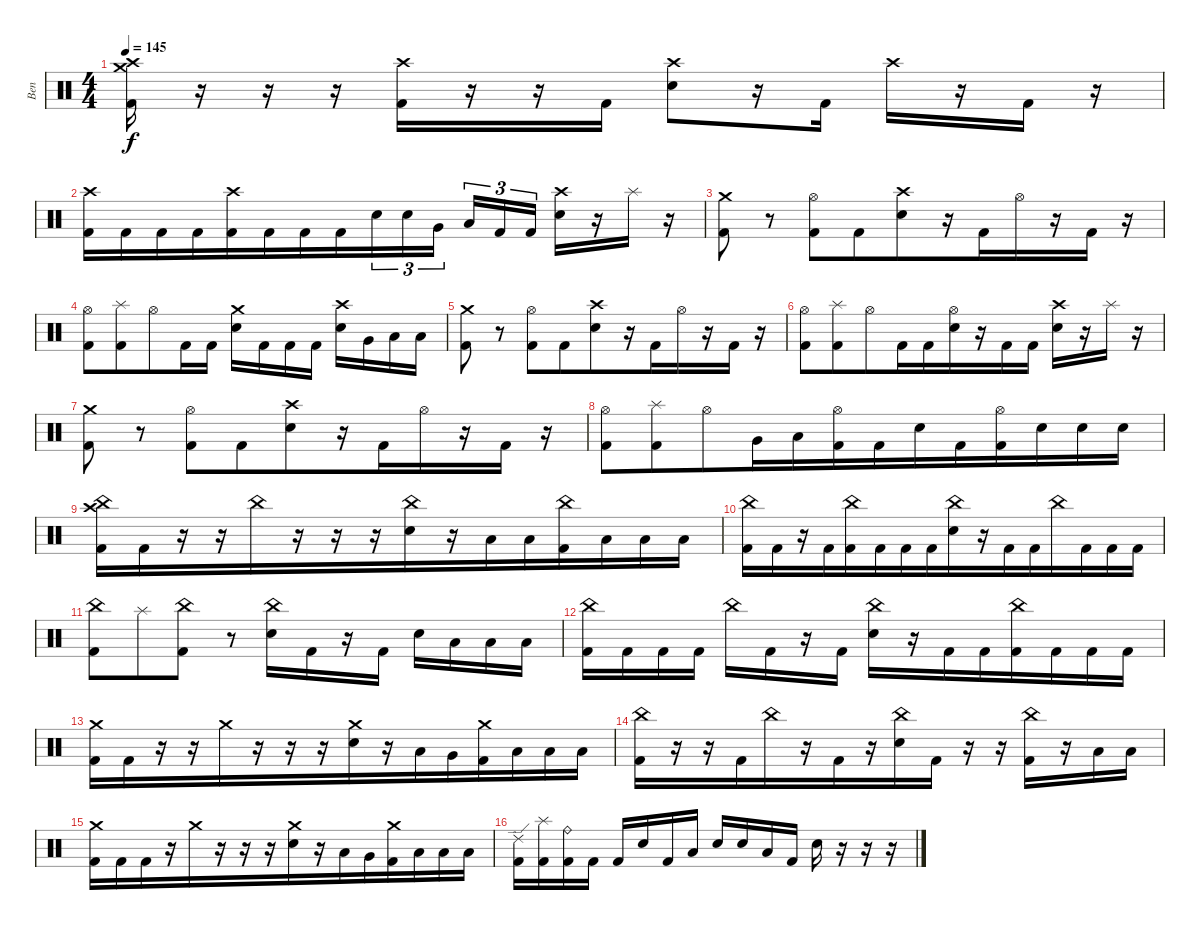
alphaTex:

\track ("Ben" "Ben") {instrument percussion}
\staff {score}
\articulation defaults
\ts (4 4)
\tempo 145
\clef neutral
\ks c
("Kick (hit) 2" "Crash medium (hit)" "Crash high (hit)").16{dy f} r.16{beam merge} r.16{beam merge} r.16{beam merge} ("Kick (hit) 2" "Crash high (hit)").16{beam merge} r.16 r.16{beam merge} "Kick (hit) 2".16 ("Electric Snare (hit)" "Crash high (hit)").8{beam merge} r.16 "Kick (hit) 2".16 "Crash high (hit)".16 r.16{beam merge} "Kick (hit) 2".16 r.16 |
("Kick (hit) 2" "Crash high (hit)").16 "Kick (hit) 2".16{beam merge} "Kick (hit) 2".16{beam merge} "Kick (hit) 2".16{beam merge} ("Kick (hit) 2" "Crash high (hit)").16{beam merge} "Kick (hit) 2".16 "Kick (hit) 2".16{beam merge} "Kick (hit) 2".16{beam merge} "Electric Snare (hit)".16{tu (3 2)} "Electric Snare (hit)".16{tu (3 2) beam merge} "Very Low Tom (hit)".16{tu (3 2) beam splitsecondary} "Low Floor Tom (hit)".16{tu (3 2)} "Kick (hit) 2".16{tu (3 2)} "Kick (hit) 2".16{tu (3 2)} ("Crash high (hit)" "Electric Snare (hit)").16 r.16 "Splash (hit)".16{beam merge} r.16 |
("Crash medium (hit)" "Kick (hit) 2").8 r.8 ("Hi-Hat (open)" "Kick (hit) 2").8{beam merge} "Kick (hit) 2".8{beam merge} ("Crash high (hit)" "Electric Snare (hit)").8 r.16{beam merge} "Kick (hit) 2".16{beam merge} "Hi-Hat (open)".16 r.16 "Kick (hit) 2".16 r.16 |
("Kick (hit) 2" "Hi-Hat (open)").8{beam merge} ("Kick (hit) 2" "Splash (hit)").8{beam merge} "Hi-Hat (open)".8{beam merge} "Kick (hit) 2".16{beam merge} "Kick (hit) 2".16 ("Electric Snare (hit)" "Crash medium (hit)").16 "Kick (hit) 2".16{beam merge} "Kick (hit) 2".16 "Kick (hit) 2".16 ("Electric Snare (hit)" "Crash high (hit)").16{beam merge} "Very Low Tom (hit)".16 "Low Floor Tom (hit)".16{beam merge} "Low Floor Tom (hit)".16 |
("Crash medium (hit)" "Kick (hit) 2").8 r.8 ("Hi-Hat (open)" "Kick (hit) 2").8{beam merge} "Kick (hit) 2".8{beam merge} ("Crash high (hit)" "Electric Snare (hit)").8 r.16{beam merge} "Kick (hit) 2".16{beam merge} "Hi-Hat (open)".16 r.16 "Kick (hit) 2".16 r.16 |
("Kick (hit) 2" "Hi-Hat (open)").8{beam merge} ("Kick (hit) 2" "Splash (hit)").8{beam merge} "Hi-Hat (open)".8{beam merge} "Kick (hit) 2".16{beam merge} "Kick (hit) 2".16{beam merge} ("Hi-Hat (open)" "Electric Snare (hit)").16 r.16 "Kick (hit) 2".16 "Kick (hit) 2".16 ("Crash high (hit)" "Electric Snare (hit)").16 r.16 "Splash (hit)".16{beam merge} r.16 |
("Crash medium (hit)" "Kick (hit) 2").8 r.8 ("Hi-Hat (open)" "Kick (hit) 2").8{beam merge} "Kick (hit) 2".8{beam merge} ("Crash high (hit)" "Electric Snare (hit)").8 r.16{beam merge} "Kick (hit) 2".16{beam merge} "Hi-Hat (open)".16 r.16 "Kick (hit) 2".16 r.16 |
("Kick (hit) 2" "Hi-Hat (open)").8{beam merge} ("Kick (hit) 2" "Splash (hit)").8{beam merge} "Hi-Hat (open)".8{beam merge} "Very Low Tom (hit)".16{beam merge} "Low Floor Tom (hit)".16{beam merge} ("Kick (hit) 2" "Hi-Hat (open)").16 "Kick (hit) 2".16 "Electric Snare (hit)".16{beam merge} "Kick (hit) 2".16{beam merge} ("Kick (hit) 2" "Hi-Hat (open)").16{beam merge} "Electric Snare (hit)".16 "Electric Snare (hit)".16{beam merge} "Electric Snare (hit)".16 |
("Kick (hit) 2" "Crash high (hit)" "China (hit)").16 "Kick (hit) 2".16{beam merge} r.16{beam merge} r.16 "China (hit)".16{beam merge} r.16 r.16 r.16{beam merge} ("Electric Snare (hit)" "China (hit)").16{beam merge} r.16{beam merge} "Low Tom (hit)".16{beam merge} "Low Tom (hit)".16{beam merge} ("Kick (hit) 2" "China (hit)").16{beam merge} "Low Floor Tom (hit)".16 "Low Floor Tom (hit)".16 "Low Floor Tom (hit)".16 |
("China (hit)" "Kick (hit) 2").16{beam merge} "Kick (hit) 2".16 r.16 "Kick (hit) 2".16{beam merge} ("China (hit)" "Kick (hit) 2").16{beam merge} "Kick (hit) 2".16 "Kick (hit) 2".16 "Kick (hit) 2".16{beam merge} ("China (hit)" "Electric Snare (hit)").16 r.16{beam merge} "Kick (hit) 2".16{beam merge} "Kick (hit) 2".16{beam merge} "China (hit)".16 "Kick (hit) 2".16 "Kick (hit) 2".16{beam merge} "Kick (hit) 2".16 |
("Kick (hit) 2" "China (hit)").8 "Splash (hit)".8{beam merge} ("Kick (hit) 2" "China (hit)").8 r.8 ("Electric Snare (hit)" "China (hit)").16{beam merge} "Kick (hit) 2".16 r.16{beam merge} "Kick (hit) 2".16 "Electric Snare (hit)".16 "Low Tom (hit)".16{beam merge} "Low Tom (hit)".16 "Low Tom (hit)".16 |
("Kick (hit) 2" "China (hit)").16{beam merge} "Kick (hit) 2".16 "Kick (hit) 2".16 "Kick (hit) 2".16 "China (hit)".16 "Kick (hit) 2".16 r.16 "Kick (hit) 2".16 ("Electric Snare (hit)" "China (hit)").16{beam merge} r.16 "Kick (hit) 2".16{beam merge} "Kick (hit) 2".16{beam merge} ("Kick (hit) 2" "China (hit)").16 "Kick (hit) 2".16{beam merge} "Kick (hit) 2".16 "Kick (hit) 2".16 |
("Kick (hit) 2" "Crash medium (hit)").16 "Kick (hit) 2".16{beam merge} r.16{beam merge} r.16 "Crash medium (hit)".16{beam merge} r.16 r.16 r.16{beam merge} ("Electric Snare (hit)" "Crash medium (hit)").16{beam merge} r.16{beam merge} "Low Tom (hit)".16{beam merge} "Very Low Tom (hit)".16{beam merge} ("Kick (hit) 2" "Crash medium (hit)").16{beam merge} "Low Floor Tom (hit)".16 "Low Floor Tom (hit)".16 "Low Floor Tom (hit)".16 |
("China (hit)" "Kick (hit) 2").16 r.16{beam merge} r.16{beam merge} "Kick (hit) 2".16{beam merge} "China (hit)".16{beam merge} r.16 "Kick (hit) 2".16{beam merge} r.16 ("China (hit)" "Electric Snare (hit)").16 "Kick (hit) 2".16 r.16{beam merge} r.16{beam merge} ("China (hit)" "Kick (hit) 2").16{beam merge} r.16 "Low Floor Tom (hit)".16{beam merge} "Low Floor Tom (hit)".16 |
("Kick (hit) 2" "Crash medium (hit)").16 "Kick (hit) 2".16{beam merge} "Kick (hit) 2".16{beam merge} r.16 "Crash medium (hit)".16{beam merge} r.16 r.16 r.16{beam merge} ("Electric Snare (hit)" "Crash medium (hit)").16{beam merge} r.16{beam merge} "Low Tom (hit)".16{beam merge} "Very Low Tom (hit)".16{beam merge} ("Kick (hit) 2" "Crash medium (hit)").16{beam merge} "Low Floor Tom (hit)".16 "Low Floor Tom (hit)".16 "Low Floor Tom (hit)".16 |
("Kick (hit) 2" "Ride (edge) 2").16{beam merge} ("Kick (hit) 2" "Splash (hit)").16{beam merge} ("Kick (hit) 2" "Ride (bell)").16 "Kick (hit) 2".16 "Kick (hit) 2".16 "Electric Snare (hit)".16{beam merge} "Kick (hit) 2".16{beam merge} "Low Tom (hit)".16 "Electric Snare (hit)".16{beam merge} "Electric Snare (hit)".16{beam merge} "Low Floor Tom (hit)".16{beam merge} "Kick (hit) 2".16 "Electric Snare (hit)".16 r.16{beam merge} r.16{beam merge} r.16
